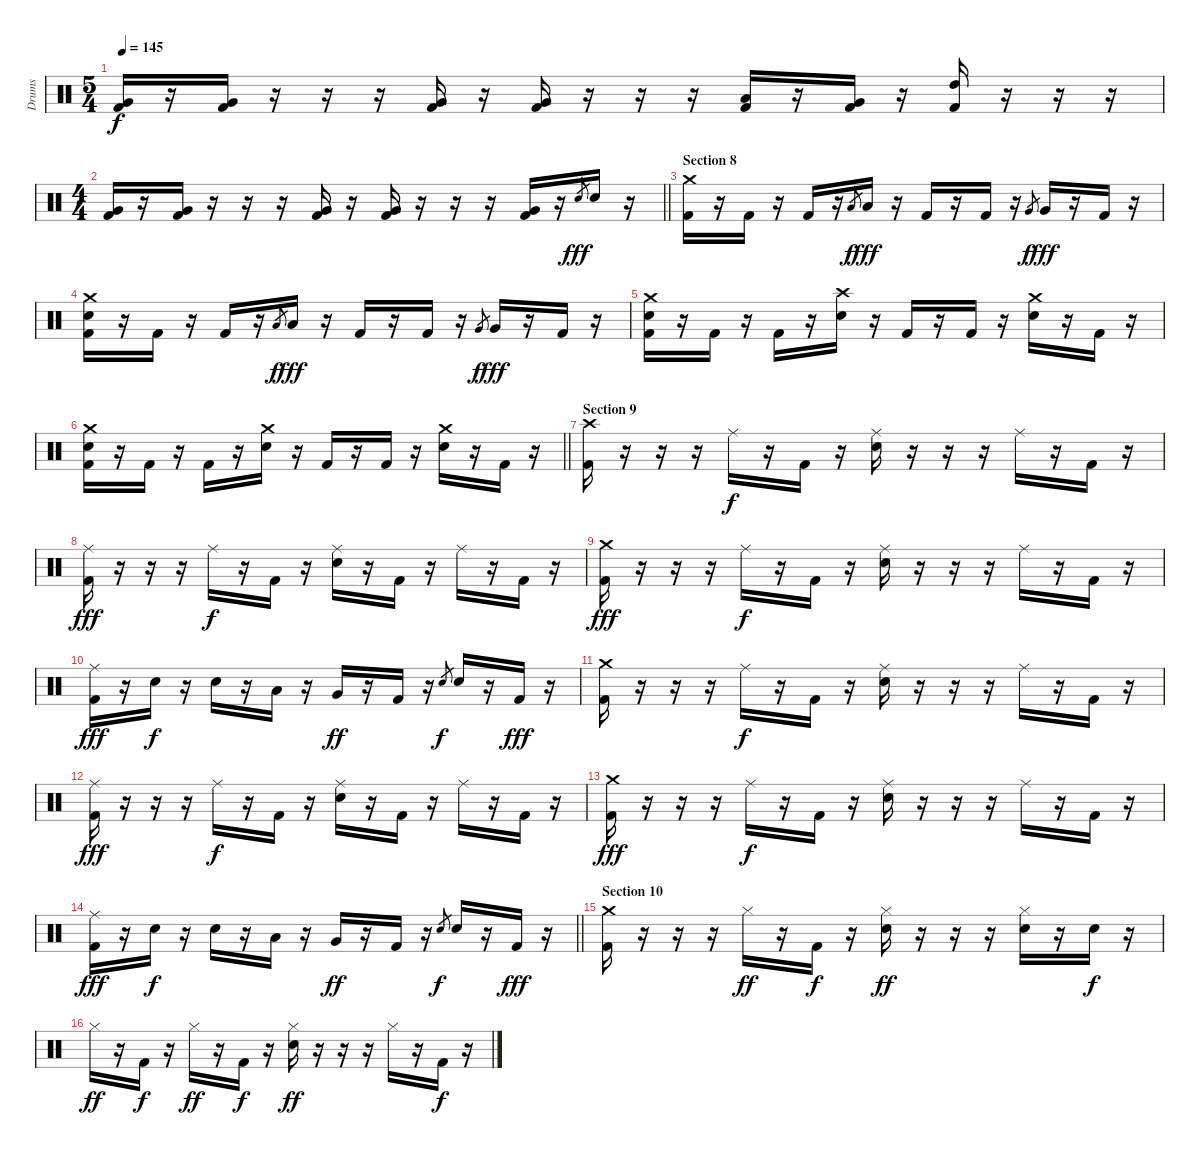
\track ("Drums" "Drums") {instrument percussion}
\staff {score}
\articulation defaults
\ts (5 4)
\tempo 145
\clef neutral
\ks c
("Very Low Tom (hit)" "Kick (hit) 2").16{dy f} r.16 ("Very Low Tom (hit)" "Kick (hit) 2").16 r.16 r.16 r.16 ("Very Low Tom (hit)" "Kick (hit) 2").16 r.16 ("Very Low Tom (hit)" "Kick (hit) 2").16 r.16 r.16 r.16 ("Low Tom (hit)" "Kick (hit) 2").16 r.16 ("Very Low Tom (hit)" "Kick (hit) 2").16 r.16 ("High Tom (hit)" "Kick (hit) 2").16 r.16 r.16 r.16 |
\ts (4 4)
\barLineRight lightlight
("Very Low Tom (hit)" "Kick (hit) 2").16 r.16 ("Very Low Tom (hit)" "Kick (hit) 2").16 r.16 r.16 r.16 ("Very Low Tom (hit)" "Kick (hit) 2").16 r.16 ("Very Low Tom (hit)" "Kick (hit) 2").16 r.16 r.16 r.16 ("Very Low Tom (hit)" "Kick (hit) 2").16 r.16 "Electric Snare (hit)".8{gr dy fff} "Electric Snare (hit)".16 r.16 |
\section ("" "Section 8")
("Crash medium (hit)" "Kick (hit) 2").16 r.16 "Kick (hit) 2".16 r.16 "Kick (hit) 2".16 r.16 "Low Tom (hit)".8{gr dy f} "Low Tom (hit)".16{dy fff} r.16 "Kick (hit) 2".16 r.16 "Kick (hit) 2".16 r.16 "Very Low Tom (hit)".8{gr dy f} "Very Low Tom (hit)".16{dy fff} r.16 "Kick (hit) 2".16 r.16 |
("Crash medium (hit)" "Electric Snare (hit)" "Kick (hit) 2").16 r.16 "Kick (hit) 2".16 r.16 "Kick (hit) 2".16 r.16 "Low Tom (hit)".8{gr dy f} "Low Tom (hit)".16{dy fff} r.16 "Kick (hit) 2".16 r.16 "Kick (hit) 2".16 r.16 "Very Low Tom (hit)".8{gr dy f} "Very Low Tom (hit)".16{dy fff} r.16 "Kick (hit) 2".16 r.16 |
("Crash medium (hit)" "Electric Snare (hit)" "Kick (hit) 2").16 r.16 "Kick (hit) 2".16 r.16 "Kick (hit) 2".16 r.16 ("Crash high (hit)" "Electric Snare (hit)").16 r.16 "Kick (hit) 2".16 r.16 "Kick (hit) 2".16 r.16 ("Crash medium (hit)" "Electric Snare (hit)").16 r.16 "Kick (hit) 2".16 r.16 |
\barLineRight lightlight
("Crash medium (hit)" "Electric Snare (hit)" "Kick (hit) 2").16 r.16 "Kick (hit) 2".16 r.16 "Kick (hit) 2".16 r.16 ("Crash medium (hit)" "Electric Snare (hit)").16 r.16 "Kick (hit) 2".16 r.16 "Kick (hit) 2".16 r.16 ("Crash medium (hit)" "Electric Snare (hit)").16 r.16 "Kick (hit) 2".16 r.16 |
\section ("" "Section 9")
("Crash high (hit)" "Kick (hit) 2").16 r.16 r.16 r.16 "Ride (middle)".16{dy f} r.16 "Kick (hit) 2".16 r.16 ("Ride (middle)" "Electric Snare (hit)").16 r.16 r.16 r.16 "Ride (middle)".16 r.16 "Kick (hit) 2".16 r.16 |
("Ride (middle)" "Kick (hit) 2").16{dy fff} r.16 r.16 r.16 "Ride (middle)".16{dy f} r.16 "Kick (hit) 2".16 r.16 ("Ride (middle)" "Electric Snare (hit)").16 r.16 "Kick (hit) 2".16 r.16 "Ride (middle)".16 r.16 "Kick (hit) 2".16 r.16 |
("Crash medium (hit)" "Kick (hit) 2").16{dy fff} r.16 r.16 r.16 "Ride (middle)".16{dy f} r.16 "Kick (hit) 2".16 r.16 ("Ride (middle)" "Electric Snare (hit)").16 r.16 r.16 r.16 "Ride (middle)".16 r.16 "Kick (hit) 2".16 r.16 |
("Ride (middle)" "Kick (hit) 2").16{dy fff} r.16 "Electric Snare (hit)".16{dy f} r.16 "Electric Snare (hit)".16 r.16 "Low Tom (hit)".16 r.16 "Very Low Tom (hit)".16{dy ff} r.16 "Kick (hit) 2".16 r.16 "Electric Snare (hit)".8{gr dy f} "Electric Snare (hit)".16 r.16 "Kick (hit) 2".16{dy fff} r.16 |
("Crash medium (hit)" "Kick (hit) 2").16 r.16 r.16 r.16 "Ride (middle)".16{dy f} r.16 "Kick (hit) 2".16 r.16 ("Ride (middle)" "Electric Snare (hit)").16 r.16 r.16 r.16 "Ride (middle)".16 r.16 "Kick (hit) 2".16 r.16 |
("Ride (middle)" "Kick (hit) 2").16{dy fff} r.16 r.16 r.16 "Ride (middle)".16{dy f} r.16 "Kick (hit) 2".16 r.16 ("Ride (middle)" "Electric Snare (hit)").16 r.16 "Kick (hit) 2".16 r.16 "Ride (middle)".16 r.16 "Kick (hit) 2".16 r.16 |
("Crash medium (hit)" "Kick (hit) 2").16{dy fff} r.16 r.16 r.16 "Ride (middle)".16{dy f} r.16 "Kick (hit) 2".16 r.16 ("Ride (middle)" "Electric Snare (hit)").16 r.16 r.16 r.16 "Ride (middle)".16 r.16 "Kick (hit) 2".16 r.16 |
\barLineRight lightlight
("Ride (middle)" "Kick (hit) 2").16{dy fff} r.16 "Electric Snare (hit)".16{dy f} r.16 "Electric Snare (hit)".16 r.16 "Low Tom (hit)".16 r.16 "Very Low Tom (hit)".16{dy ff} r.16 "Kick (hit) 2".16 r.16 "Electric Snare (hit)".8{gr dy f} "Electric Snare (hit)".16 r.16 "Kick (hit) 2".16{dy fff} r.16 |
\section ("" "Section 10")
("Crash medium (hit)" "Kick (hit) 2").16 r.16 r.16 r.16 "Hi-Hat (closed)".16{dy ff} r.16 "Kick (hit) 2".16{dy f} r.16 ("Hi-Hat (closed)" "Electric Snare (hit)").16{dy ff} r.16 r.16 r.16 ("Hi-Hat (closed)" "Electric Snare (hit)").16 r.16 "Electric Snare (hit)".16{dy f} r.16 |
"Hi-Hat (closed)".16{dy ff} r.16 "Kick (hit) 2".16{dy f} r.16 "Hi-Hat (closed)".16{dy ff} r.16 "Kick (hit) 2".16{dy f} r.16 ("Hi-Hat (closed)" "Electric Snare (hit)").16{dy ff} r.16 r.16 r.16 "Hi-Hat (closed)".16 r.16 "Kick (hit) 2".16{dy f} r.16
